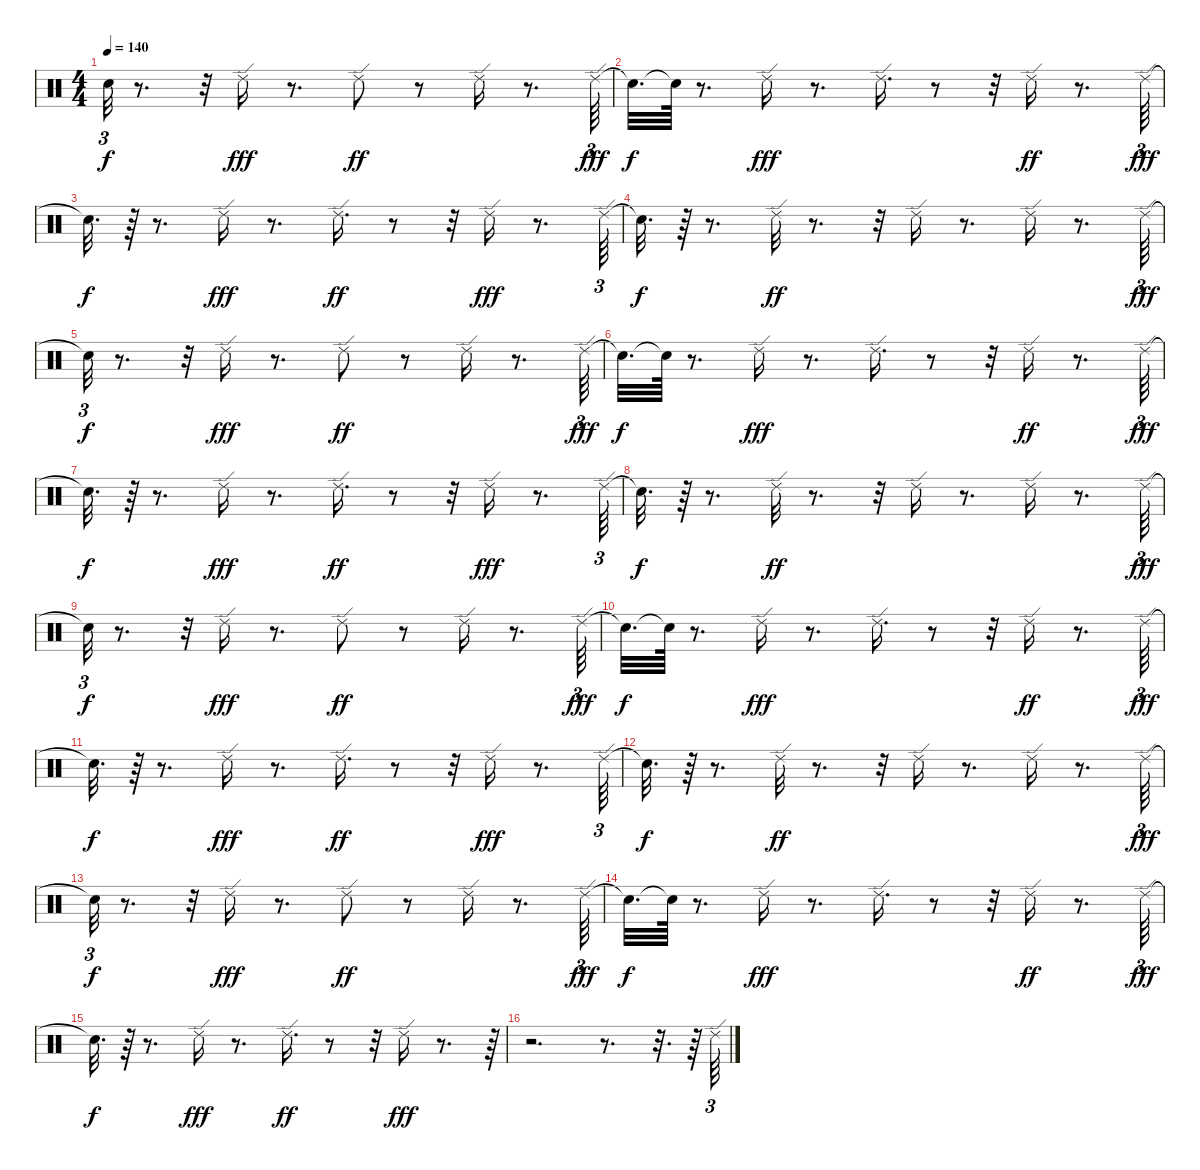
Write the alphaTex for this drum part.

\track "" {instrument percussion}
\staff {score}
\articulation defaults
\ts (4 4)
\tempo 140
\clef neutral
\ks c "Snare (hit)"{t}.32{tu (3 2) dy f}
r.8{d} r.32 "Ride (edge) 2".16{dy fff} r.8{d} "Ride (edge) 2".8{dy ff} r.8 "Ride (edge) 2".16 r.8{d} "Ride (edge) 2".64{tu (3 2) dy fff} |
"Snare (hit)"{t}.32{d dy f} "Snare (hit)"{t}.64 r.8{d} "Ride (edge) 2".16{dy fff} r.8{d} "Ride (edge) 2".16{d} r.8 r.32 "Ride (edge) 2".16{dy ff} r.8{d} "Ride (edge) 2".64{tu (3 2) dy fff} |
"Snare (hit)"{t}.32{d dy f} r.64 r.8{d} "Ride (edge) 2".16{dy fff} r.8{d} "Ride (edge) 2".16{d dy ff} r.8 r.32 "Ride (edge) 2".16{dy fff} r.8{d} "Ride (edge) 2".64{tu (3 2)} |
"Snare (hit)"{t}.32{d dy f} r.64 r.8{d} "Ride (edge) 2".32{dy ff} r.8{d} r.32 "Ride (edge) 2".16 r.8{d} "Ride (edge) 2".16 r.8{d} "Ride (edge) 2".64{tu (3 2) dy fff} |
"Snare (hit)"{t}.32{tu (3 2) dy f} r.8{d} r.32 "Ride (edge) 2".16{dy fff} r.8{d} "Ride (edge) 2".8{dy ff} r.8 "Ride (edge) 2".16 r.8{d} "Ride (edge) 2".64{tu (3 2) dy fff} |
"Snare (hit)"{t}.32{d dy f} "Snare (hit)"{t}.64 r.8{d} "Ride (edge) 2".16{dy fff} r.8{d} "Ride (edge) 2".16{d} r.8 r.32 "Ride (edge) 2".16{dy ff} r.8{d} "Ride (edge) 2".64{tu (3 2) dy fff} |
"Snare (hit)"{t}.32{d dy f} r.64 r.8{d} "Ride (edge) 2".16{dy fff} r.8{d} "Ride (edge) 2".16{d dy ff} r.8 r.32 "Ride (edge) 2".16{dy fff} r.8{d} "Ride (edge) 2".64{tu (3 2)} |
"Snare (hit)"{t}.32{d dy f} r.64 r.8{d} "Ride (edge) 2".32{dy ff} r.8{d} r.32 "Ride (edge) 2".16 r.8{d} "Ride (edge) 2".16 r.8{d} "Ride (edge) 2".64{tu (3 2) dy fff} |
"Snare (hit)"{t}.32{tu (3 2) dy f} r.8{d} r.32 "Ride (edge) 2".16{dy fff} r.8{d} "Ride (edge) 2".8{dy ff} r.8 "Ride (edge) 2".16 r.8{d} "Ride (edge) 2".64{tu (3 2) dy fff} |
"Snare (hit)"{t}.32{d dy f} "Snare (hit)"{t}.64 r.8{d} "Ride (edge) 2".16{dy fff} r.8{d} "Ride (edge) 2".16{d} r.8 r.32 "Ride (edge) 2".16{dy ff} r.8{d} "Ride (edge) 2".64{tu (3 2) dy fff} |
"Snare (hit)"{t}.32{d dy f} r.64 r.8{d} "Ride (edge) 2".16{dy fff} r.8{d} "Ride (edge) 2".16{d dy ff} r.8 r.32 "Ride (edge) 2".16{dy fff} r.8{d} "Ride (edge) 2".64{tu (3 2)} |
"Snare (hit)"{t}.32{d dy f} r.64 r.8{d} "Ride (edge) 2".32{dy ff} r.8{d} r.32 "Ride (edge) 2".16 r.8{d} "Ride (edge) 2".16 r.8{d} "Ride (edge) 2".64{tu (3 2) dy fff} |
"Snare (hit)"{t}.32{tu (3 2) dy f} r.8{d} r.32 "Ride (edge) 2".16{dy fff} r.8{d} "Ride (edge) 2".8{dy ff} r.8 "Ride (edge) 2".16 r.8{d} "Ride (edge) 2".64{tu (3 2) dy fff} |
"Snare (hit)"{t}.32{d dy f} "Snare (hit)"{t}.64 r.8{d} "Ride (edge) 2".16{dy fff} r.8{d} "Ride (edge) 2".16{d} r.8 r.32 "Ride (edge) 2".16{dy ff} r.8{d} "Ride (edge) 2".64{tu (3 2) dy fff} |
"Snare (hit)"{t}.32{d dy f} r.64 r.8{d} "Ride (edge) 2".16{dy fff} r.8{d} "Ride (edge) 2".16{d dy ff} r.8 r.32 "Ride (edge) 2".16{dy fff} r.8{d} r.64{tu (3 2)} |
r.2{d} r.8{d} r.32{d} r.64 "Ride (edge) 2".64{tu (3 2)}
